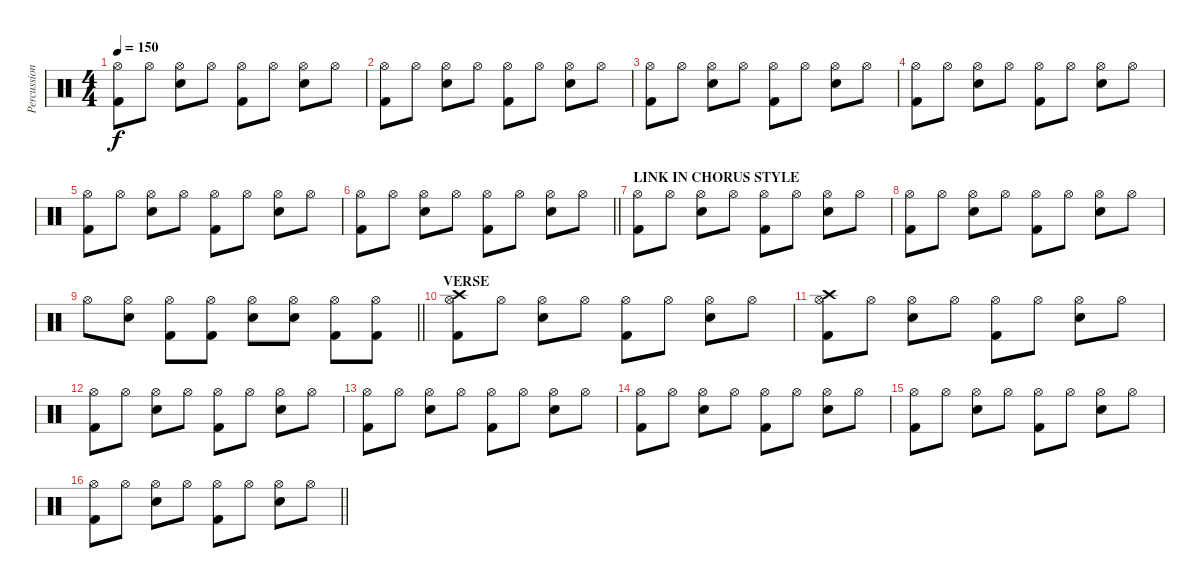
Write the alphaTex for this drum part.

\track ("Percussion" "Percussion") {solo instrument percussion}
\staff {score}
\articulation defaults
\ts (4 4)
\tempo 150
\clef neutral
\ks c
("Hi-Hat (open)" "Kick (hit) 2").8{dy f} "Hi-Hat (open)".8 ("Hi-Hat (open)" "Snare (hit) 2").8 "Hi-Hat (open)".8 ("Hi-Hat (open)" "Kick (hit) 2").8 "Hi-Hat (open)".8 ("Hi-Hat (open)" "Snare (hit) 2").8 "Hi-Hat (open)".8 |
("Hi-Hat (open)" "Kick (hit) 2").8 "Hi-Hat (open)".8 ("Hi-Hat (open)" "Snare (hit) 2").8 "Hi-Hat (open)".8 ("Hi-Hat (open)" "Kick (hit) 2").8 "Hi-Hat (open)".8 ("Hi-Hat (open)" "Snare (hit) 2").8 "Hi-Hat (open)".8 |
("Hi-Hat (open)" "Kick (hit) 2").8 "Hi-Hat (open)".8 ("Hi-Hat (open)" "Snare (hit) 2").8 "Hi-Hat (open)".8 ("Hi-Hat (open)" "Kick (hit) 2").8 "Hi-Hat (open)".8 ("Hi-Hat (open)" "Snare (hit) 2").8 "Hi-Hat (open)".8 |
("Hi-Hat (open)" "Kick (hit) 2").8 "Hi-Hat (open)".8 ("Hi-Hat (open)" "Snare (hit) 2").8 "Hi-Hat (open)".8 ("Hi-Hat (open)" "Kick (hit) 2").8 "Hi-Hat (open)".8 ("Hi-Hat (open)" "Snare (hit) 2").8 "Hi-Hat (open)".8 |
("Hi-Hat (open)" "Kick (hit) 2").8 "Hi-Hat (open)".8 ("Hi-Hat (open)" "Snare (hit) 2").8 "Hi-Hat (open)".8 ("Hi-Hat (open)" "Kick (hit) 2").8 "Hi-Hat (open)".8 ("Hi-Hat (open)" "Snare (hit) 2").8 "Hi-Hat (open)".8 |
\barLineRight lightlight
("Hi-Hat (open)" "Kick (hit) 2").8 "Hi-Hat (open)".8 ("Hi-Hat (open)" "Snare (hit) 2").8 "Hi-Hat (open)".8 ("Hi-Hat (open)" "Kick (hit) 2").8 "Hi-Hat (open)".8 ("Hi-Hat (open)" "Snare (hit) 2").8 "Hi-Hat (open)".8 |
\section ("" "LINK IN CHORUS STYLE ")
("Hi-Hat (open)" "Kick (hit) 2").8 "Hi-Hat (open)".8 ("Hi-Hat (open)" "Snare (hit) 2").8 "Hi-Hat (open)".8 ("Hi-Hat (open)" "Kick (hit) 2").8 "Hi-Hat (open)".8 ("Hi-Hat (open)" "Snare (hit) 2").8 "Hi-Hat (open)".8 |
("Hi-Hat (open)" "Kick (hit) 2").8 "Hi-Hat (open)".8 ("Hi-Hat (open)" "Snare (hit) 2").8 "Hi-Hat (open)".8 ("Hi-Hat (open)" "Kick (hit) 2").8 "Hi-Hat (open)".8 ("Hi-Hat (open)" "Snare (hit) 2").8 "Hi-Hat (open)".8 |
\barLineRight lightlight "Hi-Hat (open)".8
("Hi-Hat (open)" "Snare (hit) 2").8 ("Hi-Hat (open)" "Kick (hit) 2").8 ("Hi-Hat (open)" "Kick (hit) 2").8 ("Hi-Hat (open)" "Snare (hit) 2").8 ("Hi-Hat (open)" "Snare (hit) 2").8 ("Hi-Hat (open)" "Kick (hit) 2").8 ("Hi-Hat (open)" "Kick (hit) 2").8 |
\section ("" "VERSE ")
("Hi-Hat (open)" "Crash high (hit)" "Kick (hit) 2").8 "Hi-Hat (open)".8 ("Hi-Hat (open)" "Snare (hit) 2").8 "Hi-Hat (open)".8 ("Hi-Hat (open)" "Kick (hit) 2").8 "Hi-Hat (open)".8 ("Hi-Hat (open)" "Snare (hit) 2").8 "Hi-Hat (open)".8 |
("Hi-Hat (open)" "Crash high (hit)" "Kick (hit) 2").8 "Hi-Hat (open)".8 ("Hi-Hat (open)" "Snare (hit) 2").8 "Hi-Hat (open)".8 ("Hi-Hat (open)" "Kick (hit) 2").8 "Hi-Hat (open)".8 ("Hi-Hat (open)" "Snare (hit) 2").8 "Hi-Hat (open)".8 |
("Hi-Hat (open)" "Kick (hit) 2").8 "Hi-Hat (open)".8 ("Hi-Hat (open)" "Snare (hit) 2").8 "Hi-Hat (open)".8 ("Hi-Hat (open)" "Kick (hit) 2").8 "Hi-Hat (open)".8 ("Hi-Hat (open)" "Snare (hit) 2").8 "Hi-Hat (open)".8 |
("Hi-Hat (open)" "Kick (hit) 2").8 "Hi-Hat (open)".8 ("Hi-Hat (open)" "Snare (hit) 2").8 "Hi-Hat (open)".8 ("Hi-Hat (open)" "Kick (hit) 2").8 "Hi-Hat (open)".8 ("Hi-Hat (open)" "Snare (hit) 2").8 "Hi-Hat (open)".8 |
("Hi-Hat (open)" "Kick (hit) 2").8 "Hi-Hat (open)".8 ("Hi-Hat (open)" "Snare (hit) 2").8 "Hi-Hat (open)".8 ("Hi-Hat (open)" "Kick (hit) 2").8 "Hi-Hat (open)".8 ("Hi-Hat (open)" "Snare (hit) 2").8 "Hi-Hat (open)".8 |
("Hi-Hat (open)" "Kick (hit) 2").8 "Hi-Hat (open)".8 ("Hi-Hat (open)" "Snare (hit) 2").8 "Hi-Hat (open)".8 ("Hi-Hat (open)" "Kick (hit) 2").8 "Hi-Hat (open)".8 ("Hi-Hat (open)" "Snare (hit) 2").8 "Hi-Hat (open)".8 |
\barLineRight lightlight
("Hi-Hat (open)" "Kick (hit) 2").8 "Hi-Hat (open)".8 ("Hi-Hat (open)" "Snare (hit) 2").8 "Hi-Hat (open)".8 ("Hi-Hat (open)" "Kick (hit) 2").8 "Hi-Hat (open)".8 ("Hi-Hat (open)" "Snare (hit) 2").8 "Hi-Hat (open)".8
